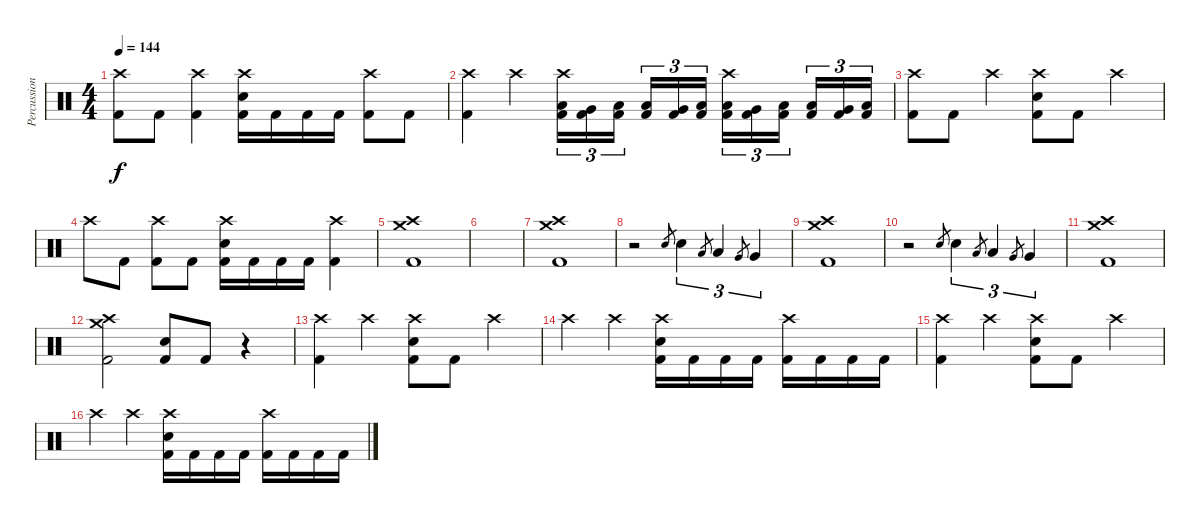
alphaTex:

\track ("Percussion" "Percussion") {instrument percussion}
\staff {score}
\articulation defaults
\ts (4 4)
\tempo 144
\clef neutral
\ks c
("Crash high (hit)" "Kick (hit) 2").8{dy f} "Kick (hit) 2".8 ("Crash high (hit)" "Kick (hit) 2").4 ("Crash high (hit)" "Snare (hit) 2" "Kick (hit) 2").16 "Kick (hit) 2".16 "Kick (hit) 2".16 "Kick (hit) 2".16 ("Crash high (hit)" "Kick (hit) 2").8 "Kick (hit) 2".8 |
("Crash high (hit)" "Kick (hit) 2").4 "Crash high (hit)".4 ("Crash high (hit)" "Low Tom (hit)" "Kick (hit) 2").16{tu (3 2)} ("Very Low Tom (hit)" "Kick (hit) 2").16{tu (3 2)} ("Low Floor Tom (hit)" "Kick (hit) 2").16{tu (3 2) beam splitsecondary} ("Low Tom (hit)" "Kick (hit) 2").16{tu (3 2)} ("Very Low Tom (hit)" "Kick (hit) 2").16{tu (3 2)} ("Low Floor Tom (hit)" "Kick (hit) 2").16{tu (3 2)} ("Crash high (hit)" "Low Tom (hit)" "Kick (hit) 2").16{tu (3 2)} ("Very Low Tom (hit)" "Kick (hit) 2").16{tu (3 2)} ("Low Floor Tom (hit)" "Kick (hit) 2").16{tu (3 2) beam splitsecondary} ("Low Tom (hit)" "Kick (hit) 2").16{tu (3 2)} ("Very Low Tom (hit)" "Kick (hit) 2").16{tu (3 2)} ("Low Floor Tom (hit)" "Kick (hit) 2").16{tu (3 2)} |
("Crash high (hit)" "Kick (hit) 2").8 "Kick (hit) 2".8 "Crash high (hit)".4 ("Crash high (hit)" "Snare (hit) 2" "Kick (hit) 2").8 "Kick (hit) 2".8 "Crash high (hit)".4 |
"Crash high (hit)".8 "Kick (hit) 2".8 ("Crash high (hit)" "Kick (hit) 2").8 "Kick (hit) 2".8 ("Crash high (hit)" "Snare (hit) 2" "Kick (hit) 2").16 "Kick (hit) 2".16 "Kick (hit) 2".16 "Kick (hit) 2".16 ("Crash high (hit)" "Kick (hit) 2").4 |
("Crash medium (hit)" "Crash high (hit)" "Kick (hit) 2").1 |
|
("Crash high (hit)" "Crash medium (hit)" "Kick (hit) 2").1 |
r.2 "Snare (hit) 2".8{gr} "Snare (hit) 2".4{tu (3 2)} "Low Tom (hit)".8{gr} "Low Tom (hit)".4{tu (3 2)} "Very Low Tom (hit)".8{gr} "Very Low Tom (hit)".4{tu (3 2)} |
("Crash high (hit)" "Crash medium (hit)" "Kick (hit) 2").1 |
r.2 "Snare (hit) 2".8{gr} "Snare (hit) 2".4{tu (3 2)} "Low Tom (hit)".8{gr} "Low Tom (hit)".4{tu (3 2)} "Very Low Tom (hit)".8{gr} "Very Low Tom (hit)".4{tu (3 2)} |
("Crash medium (hit)" "Crash high (hit)" "Kick (hit) 2").1 |
("Crash high (hit)" "Crash medium (hit)" "Kick (hit) 2").2 ("Snare (hit) 2" "Kick (hit) 2").8 "Kick (hit) 2".8 r.4 |
("Crash high (hit)" "Kick (hit) 2").4 "Crash high (hit)".4 ("Crash high (hit)" "Snare (hit) 2" "Kick (hit) 2").8 "Kick (hit) 2".8 "Crash high (hit)".4 |
"Crash high (hit)".4 "Crash high (hit)".4 ("Crash high (hit)" "Snare (hit) 2" "Kick (hit) 2").16 "Kick (hit) 2".16 "Kick (hit) 2".16 "Kick (hit) 2".16 ("Crash high (hit)" "Kick (hit) 2").16 "Kick (hit) 2".16 "Kick (hit) 2".16 "Kick (hit) 2".16 |
("Crash high (hit)" "Kick (hit) 2").4 "Crash high (hit)".4 ("Crash high (hit)" "Snare (hit) 2" "Kick (hit) 2").8 "Kick (hit) 2".8 "Crash high (hit)".4 |
"Crash high (hit)".4 "Crash high (hit)".4 ("Crash high (hit)" "Snare (hit) 2" "Kick (hit) 2").16 "Kick (hit) 2".16 "Kick (hit) 2".16 "Kick (hit) 2".16 ("Crash high (hit)" "Kick (hit) 2").16 "Kick (hit) 2".16 "Kick (hit) 2".16 "Kick (hit) 2".16
